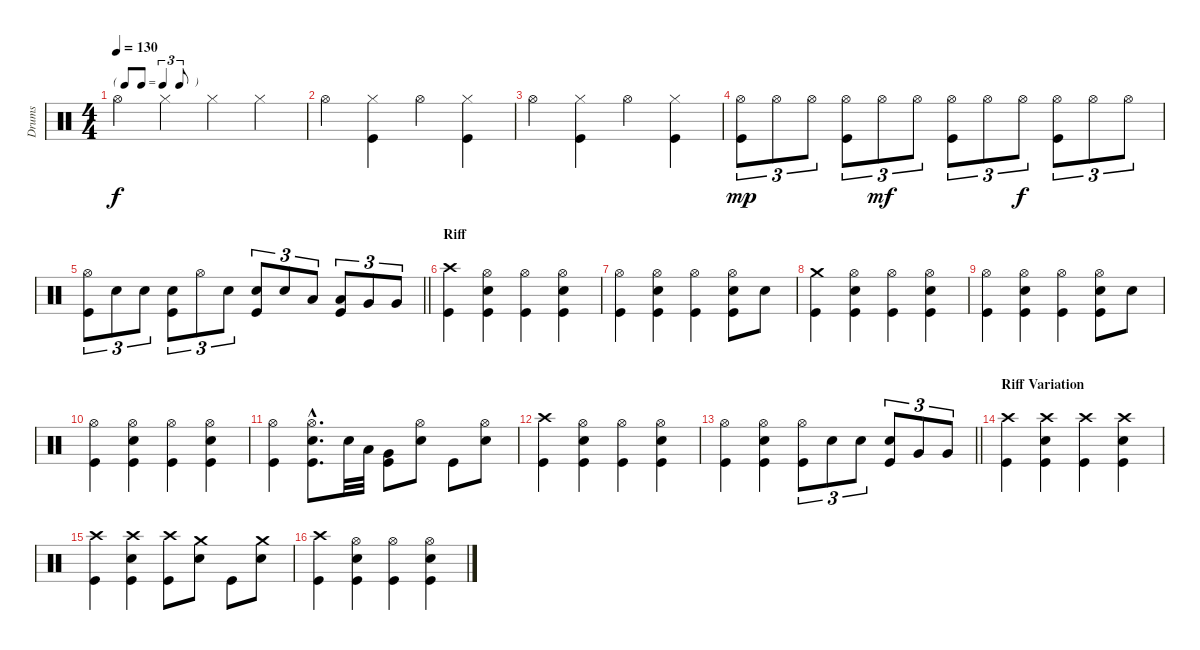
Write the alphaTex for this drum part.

\track ("Drums" "Drums") {instrument percussion}
\staff {score}
\articulation defaults
\ts (4 4)
\tf triplet8th
\tempo 130
\clef neutral
\ks c "Hi-Hat (open)".4{dy f} "Hi-Hat (closed)".4 "Hi-Hat (closed)".4 "Hi-Hat (closed)".4
|
"Hi-Hat (open)".4 ("Hi-Hat (closed)" "Kick (hit)").4 "Hi-Hat (open)".4 ("Hi-Hat (closed)" "Kick (hit)").4 |
"Hi-Hat (open)".4 ("Hi-Hat (closed)" "Kick (hit)").4 "Hi-Hat (open)".4 ("Hi-Hat (closed)" "Kick (hit)").4 |
("Kick (hit)" "Hi-Hat (open)").8{tu (3 2) dy mp} "Hi-Hat (open)".8{tu (3 2)} "Hi-Hat (open)".8{tu (3 2)} ("Kick (hit)" "Hi-Hat (open)").8{tu (3 2)} "Hi-Hat (open)".8{tu (3 2) dy mf} "Hi-Hat (open)".8{tu (3 2)} ("Kick (hit)" "Hi-Hat (open)").8{tu (3 2)} "Hi-Hat (open)".8{tu (3 2)} "Hi-Hat (open)".8{tu (3 2) dy f} ("Kick (hit)" "Hi-Hat (open)").8{tu (3 2)} "Hi-Hat (open)".8{tu (3 2)} "Hi-Hat (open)".8{tu (3 2)} |
\barLineRight lightlight
("Kick (hit)" "Hi-Hat (open)").8{tu (3 2)} "Snare (hit) 2".8{tu (3 2)} "Snare (hit) 2".8{tu (3 2)} ("Kick (hit)" "Snare (hit) 2").8{tu (3 2)} "Hi-Hat (open)".8{tu (3 2)} "Snare (hit) 2".8{tu (3 2)} ("Snare (hit) 2" "Kick (hit)").8{tu (3 2)} "Snare (hit) 2".8{tu (3 2)} "Low Tom (hit)".8{tu (3 2)} ("Kick (hit)" "Low Tom (hit)").8{tu (3 2)} "Very Low Tom (hit)".8{tu (3 2)} "Very Low Tom (hit)".8{tu (3 2)} |
\section ("" "Riff")
("Crash high (hit)" "Kick (hit)").4 ("Hi-Hat (open)" "Snare (hit) 2" "Kick (hit)").4 ("Hi-Hat (open)" "Kick (hit)").4 ("Hi-Hat (open)" "Snare (hit) 2" "Kick (hit)").4 |
("Hi-Hat (open)" "Kick (hit)").4 ("Hi-Hat (open)" "Snare (hit) 2" "Kick (hit)").4 ("Hi-Hat (open)" "Kick (hit)").4 ("Hi-Hat (open)" "Snare (hit) 2" "Kick (hit)").8 "Snare (hit) 2".8 |
("Crash medium (hit)" "Kick (hit)").4 ("Hi-Hat (open)" "Snare (hit) 2" "Kick (hit)").4 ("Hi-Hat (open)" "Kick (hit)").4 ("Hi-Hat (open)" "Snare (hit) 2" "Kick (hit)").4 |
("Hi-Hat (open)" "Kick (hit)").4 ("Hi-Hat (open)" "Snare (hit) 2" "Kick (hit)").4 ("Hi-Hat (open)" "Kick (hit)").4 ("Hi-Hat (open)" "Snare (hit) 2" "Kick (hit)").8 "Snare (hit) 2".8 |
("Hi-Hat (open)" "Kick (hit)").4 ("Hi-Hat (open)" "Snare (hit) 2" "Kick (hit)").4 ("Hi-Hat (open)" "Kick (hit)").4 ("Hi-Hat (open)" "Snare (hit) 2" "Kick (hit)").4 |
("Hi-Hat (open)" "Kick (hit)").4 ("Hi-Hat (open)"{hac} "Snare (hit) 2"{hac} "Kick (hit)"{hac}).8{d} "Snare (hit) 2".32 "Low Tom (hit)".32 ("Very Low Tom (hit)" "Kick (hit)").8 ("Hi-Hat (open)" "Snare (hit) 2").8 "Kick (hit)".8 ("Snare (hit) 2" "Hi-Hat (open)").8 |
("Crash high (hit)" "Kick (hit)").4 ("Hi-Hat (open)" "Snare (hit) 2" "Kick (hit)").4 ("Hi-Hat (open)" "Kick (hit)").4 ("Hi-Hat (open)" "Snare (hit) 2" "Kick (hit)").4 |
\barLineRight lightlight
("Hi-Hat (open)" "Kick (hit)").4 ("Hi-Hat (open)" "Snare (hit) 2" "Kick (hit)").4 ("Kick (hit)" "Hi-Hat (open)").8{tu (3 2)} "Snare (hit) 2".8{tu (3 2)} "Snare (hit) 2".8{tu (3 2)} ("Kick (hit)" "Snare (hit) 2").8{tu (3 2)} "Very Low Tom (hit)".8{tu (3 2)} "Very Low Tom (hit)".8{tu (3 2)} |
\section ("" "Riff Variation")
("Crash high (hit)" "Kick (hit)").4 ("Crash high (hit)" "Snare (hit) 2" "Kick (hit)").4 ("Crash high (hit)" "Kick (hit)").4 ("Crash high (hit)" "Snare (hit) 2" "Kick (hit)").4 |
("Crash high (hit)" "Kick (hit)").4 ("Crash high (hit)" "Snare (hit) 2" "Kick (hit)").4 ("Crash high (hit)" "Kick (hit)").8 ("Crash medium (hit)" "Snare (hit) 2").8 "Kick (hit)".8 ("Crash medium (hit)" "Snare (hit) 2").8 |
("Crash high (hit)" "Kick (hit)").4 ("Hi-Hat (open)" "Snare (hit) 2" "Kick (hit)").4 ("Hi-Hat (open)" "Kick (hit)").4 ("Hi-Hat (open)" "Snare (hit) 2" "Kick (hit)").4
